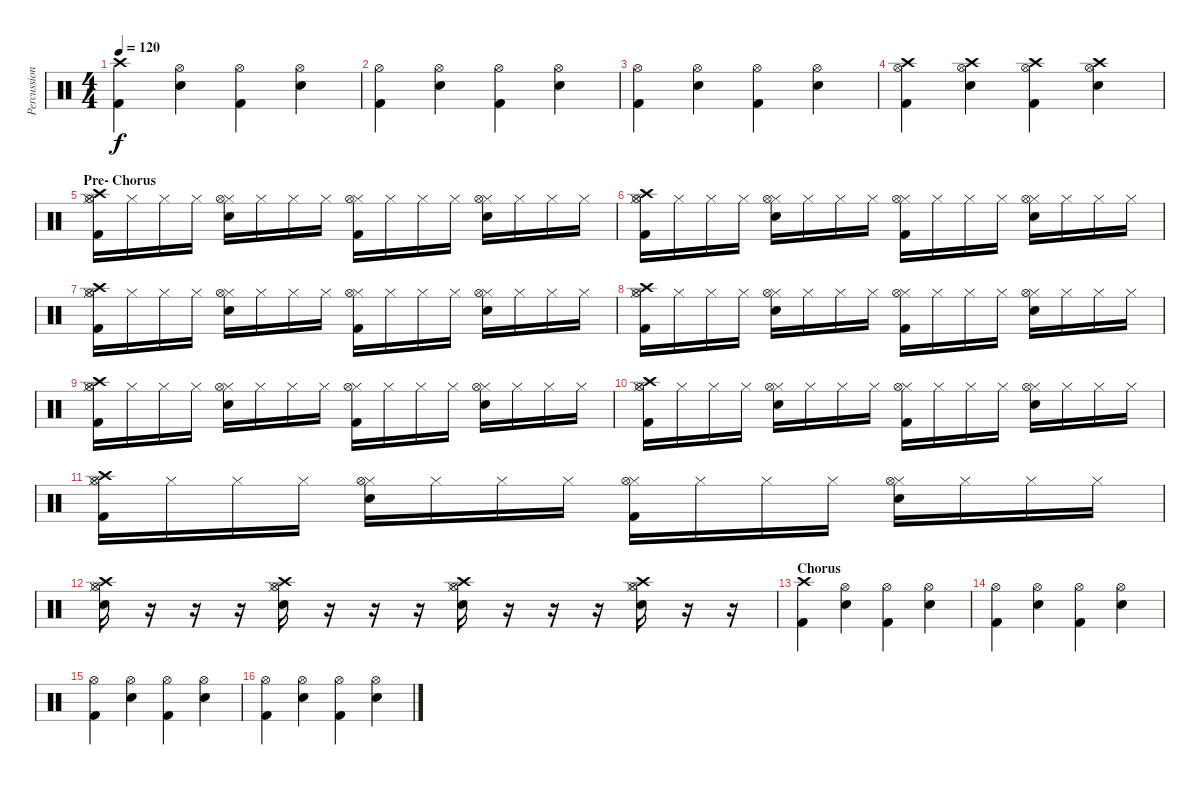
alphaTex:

\track ("Percussion" "Percussion") {instrument percussion}
\staff {score}
\articulation defaults
\ts (4 4)
\tempo 120
\clef neutral
\ks c
("Crash high (hit)" "Kick (hit) 2").4{dy f} ("Hi-Hat (open)" "Snare (hit) 2").4 ("Hi-Hat (open)" "Kick (hit) 2").4 ("Hi-Hat (open)" "Snare (hit) 2").4 |
("Hi-Hat (open)" "Kick (hit) 2").4 ("Hi-Hat (open)" "Snare (hit) 2").4 ("Hi-Hat (open)" "Kick (hit) 2").4 ("Hi-Hat (open)" "Snare (hit) 2").4 |
("Hi-Hat (open)" "Kick (hit) 2").4 ("Hi-Hat (open)" "Snare (hit) 2").4 ("Hi-Hat (open)" "Kick (hit) 2").4 ("Hi-Hat (open)" "Snare (hit) 2").4 |
("Hi-Hat (open)" "Kick (hit) 2" "Crash high (hit)").4 ("Hi-Hat (open)" "Snare (hit) 2" "Crash high (hit)").4 ("Hi-Hat (open)" "Kick (hit) 2" "Crash high (hit)").4 ("Hi-Hat (open)" "Snare (hit) 2" "Crash high (hit)").4 |
\section ("" "Pre- Chorus")
("Hi-Hat (closed)" "Kick (hit) 2" "Crash high (hit)" "Hi-Hat (open)").16 "Hi-Hat (closed)".16 "Hi-Hat (closed)".16 "Hi-Hat (closed)".16 ("Hi-Hat (closed)" "Snare (hit) 2" "Hi-Hat (open)").16 "Hi-Hat (closed)".16 "Hi-Hat (closed)".16 "Hi-Hat (closed)".16 ("Hi-Hat (closed)" "Kick (hit) 2" "Hi-Hat (open)").16 "Hi-Hat (closed)".16 "Hi-Hat (closed)".16 "Hi-Hat (closed)".16 ("Hi-Hat (closed)" "Snare (hit) 2" "Hi-Hat (open)").16 "Hi-Hat (closed)".16 "Hi-Hat (closed)".16 "Hi-Hat (closed)".16 |
("Hi-Hat (closed)" "Kick (hit) 2" "Crash high (hit)" "Hi-Hat (open)").16 "Hi-Hat (closed)".16 "Hi-Hat (closed)".16 "Hi-Hat (closed)".16 ("Hi-Hat (closed)" "Snare (hit) 2" "Hi-Hat (open)").16 "Hi-Hat (closed)".16 "Hi-Hat (closed)".16 "Hi-Hat (closed)".16 ("Hi-Hat (closed)" "Kick (hit) 2" "Hi-Hat (open)").16 "Hi-Hat (closed)".16 "Hi-Hat (closed)".16 "Hi-Hat (closed)".16 ("Hi-Hat (closed)" "Snare (hit) 2" "Hi-Hat (open)").16 "Hi-Hat (closed)".16 "Hi-Hat (closed)".16 "Hi-Hat (closed)".16 |
("Hi-Hat (closed)" "Kick (hit) 2" "Crash high (hit)" "Hi-Hat (open)").16 "Hi-Hat (closed)".16 "Hi-Hat (closed)".16 "Hi-Hat (closed)".16 ("Hi-Hat (closed)" "Snare (hit) 2" "Hi-Hat (open)").16 "Hi-Hat (closed)".16 "Hi-Hat (closed)".16 "Hi-Hat (closed)".16 ("Hi-Hat (closed)" "Kick (hit) 2" "Hi-Hat (open)").16 "Hi-Hat (closed)".16 "Hi-Hat (closed)".16 "Hi-Hat (closed)".16 ("Hi-Hat (closed)" "Snare (hit) 2" "Hi-Hat (open)").16 "Hi-Hat (closed)".16 "Hi-Hat (closed)".16 "Hi-Hat (closed)".16 |
("Hi-Hat (closed)" "Kick (hit) 2" "Crash high (hit)" "Hi-Hat (open)").16 "Hi-Hat (closed)".16 "Hi-Hat (closed)".16 "Hi-Hat (closed)".16 ("Hi-Hat (closed)" "Snare (hit) 2" "Hi-Hat (open)").16 "Hi-Hat (closed)".16 "Hi-Hat (closed)".16 "Hi-Hat (closed)".16 ("Hi-Hat (closed)" "Kick (hit) 2" "Hi-Hat (open)").16 "Hi-Hat (closed)".16 "Hi-Hat (closed)".16 "Hi-Hat (closed)".16 ("Hi-Hat (closed)" "Snare (hit) 2" "Hi-Hat (open)").16 "Hi-Hat (closed)".16 "Hi-Hat (closed)".16 "Hi-Hat (closed)".16 |
("Hi-Hat (closed)" "Kick (hit) 2" "Crash high (hit)" "Hi-Hat (open)").16 "Hi-Hat (closed)".16 "Hi-Hat (closed)".16 "Hi-Hat (closed)".16 ("Hi-Hat (closed)" "Snare (hit) 2" "Hi-Hat (open)").16 "Hi-Hat (closed)".16 "Hi-Hat (closed)".16 "Hi-Hat (closed)".16 ("Hi-Hat (closed)" "Kick (hit) 2" "Hi-Hat (open)").16 "Hi-Hat (closed)".16 "Hi-Hat (closed)".16 "Hi-Hat (closed)".16 ("Hi-Hat (closed)" "Snare (hit) 2" "Hi-Hat (open)").16 "Hi-Hat (closed)".16 "Hi-Hat (closed)".16 "Hi-Hat (closed)".16 |
("Hi-Hat (closed)" "Kick (hit) 2" "Crash high (hit)" "Hi-Hat (open)").16 "Hi-Hat (closed)".16 "Hi-Hat (closed)".16 "Hi-Hat (closed)".16 ("Hi-Hat (closed)" "Snare (hit) 2" "Hi-Hat (open)").16 "Hi-Hat (closed)".16 "Hi-Hat (closed)".16 "Hi-Hat (closed)".16 ("Hi-Hat (closed)" "Kick (hit) 2" "Hi-Hat (open)").16 "Hi-Hat (closed)".16 "Hi-Hat (closed)".16 "Hi-Hat (closed)".16 ("Hi-Hat (closed)" "Snare (hit) 2" "Hi-Hat (open)").16 "Hi-Hat (closed)".16 "Hi-Hat (closed)".16 "Hi-Hat (closed)".16 |
("Hi-Hat (closed)" "Kick (hit) 2" "Crash high (hit)" "Hi-Hat (open)").16 "Hi-Hat (closed)".16 "Hi-Hat (closed)".16 "Hi-Hat (closed)".16 ("Hi-Hat (closed)" "Snare (hit) 2" "Hi-Hat (open)").16 "Hi-Hat (closed)".16 "Hi-Hat (closed)".16 "Hi-Hat (closed)".16 ("Hi-Hat (closed)" "Kick (hit) 2" "Hi-Hat (open)").16 "Hi-Hat (closed)".16 "Hi-Hat (closed)".16 "Hi-Hat (closed)".16 ("Hi-Hat (closed)" "Snare (hit) 2" "Hi-Hat (open)").16 "Hi-Hat (closed)".16 "Hi-Hat (closed)".16 "Hi-Hat (closed)".16 |
("Hi-Hat (closed)" "Snare (hit) 2" "Crash high (hit)" "Hi-Hat (open)").16 r.16 r.16 r.16 ("Hi-Hat (closed)" "Snare (hit) 2" "Crash high (hit)" "Hi-Hat (open)").16 r.16 r.16 r.16 ("Hi-Hat (closed)" "Snare (hit) 2" "Crash high (hit)" "Hi-Hat (open)").16 r.16 r.16 r.16 ("Hi-Hat (closed)" "Snare (hit) 2" "Crash high (hit)" "Hi-Hat (open)").16 r.16 r.16 |
\section ("" "Chorus")
("Crash high (hit)" "Kick (hit) 2").4 ("Hi-Hat (open)" "Snare (hit) 2").4 ("Hi-Hat (open)" "Kick (hit) 2").4 ("Hi-Hat (open)" "Snare (hit) 2").4 |
("Hi-Hat (open)" "Kick (hit) 2").4 ("Hi-Hat (open)" "Snare (hit) 2").4 ("Hi-Hat (open)" "Kick (hit) 2").4 ("Hi-Hat (open)" "Snare (hit) 2").4 |
("Hi-Hat (open)" "Kick (hit) 2").4 ("Hi-Hat (open)" "Snare (hit) 2").4 ("Hi-Hat (open)" "Kick (hit) 2").4 ("Hi-Hat (open)" "Snare (hit) 2").4 |
("Hi-Hat (open)" "Kick (hit) 2").4 ("Hi-Hat (open)" "Snare (hit) 2").4 ("Hi-Hat (open)" "Kick (hit) 2").4 ("Hi-Hat (open)" "Snare (hit) 2").4
